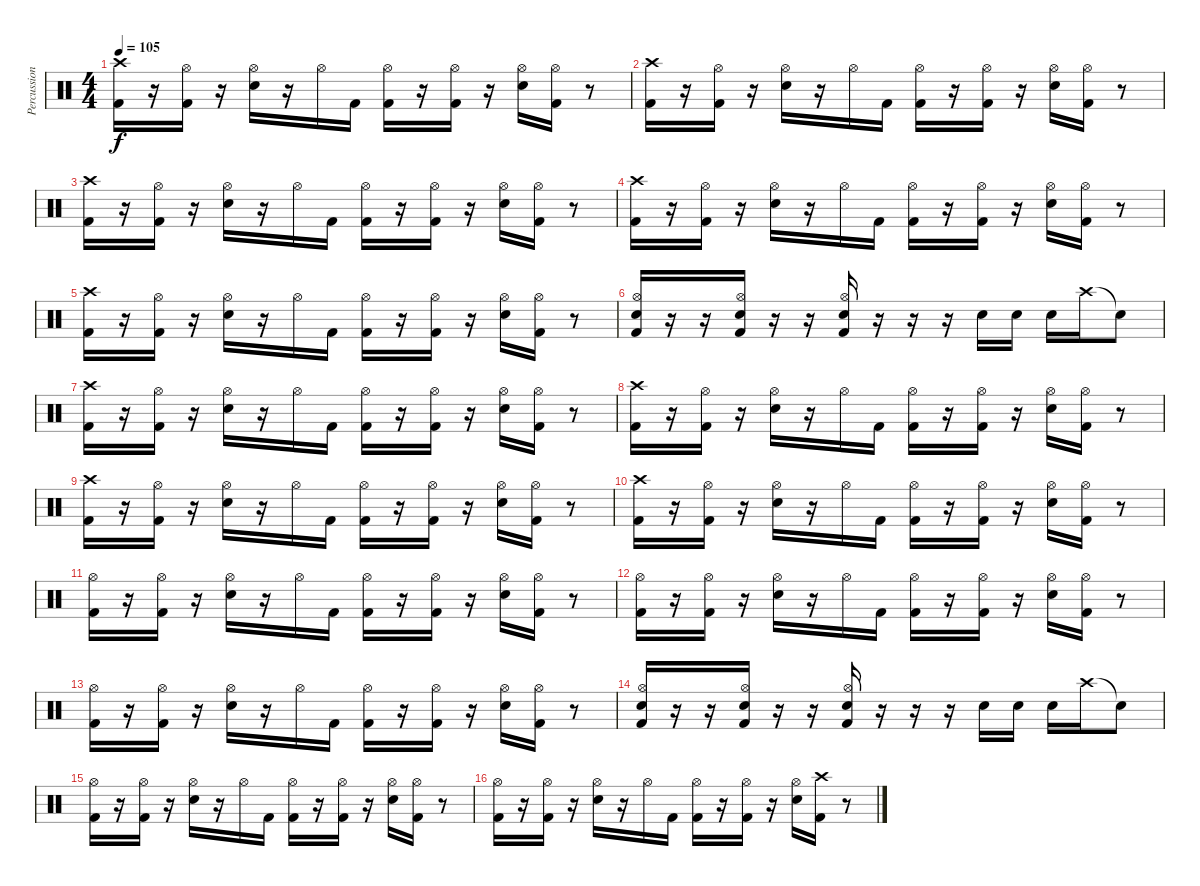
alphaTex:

\track ("Percussions" "Percussion") {instrument percussion}
\staff {score}
\articulation defaults
\ts (4 4)
\tempo 105
\clef neutral
\ks c
("Crash high (hit)" "Kick (hit) 2").16{dy f} r.16 ("Hi-Hat (open)" "Kick (hit) 2").16 r.16 ("Hi-Hat (open)" "Snare (hit) 2").16 r.16 "Hi-Hat (open)".16 "Kick (hit) 2".16 ("Kick (hit) 2" "Hi-Hat (open)").16 r.16 ("Kick (hit) 2" "Hi-Hat (open)").16 r.16 ("Hi-Hat (open)" "Snare (hit) 2").16 ("Kick (hit) 2" "Hi-Hat (open)").16 r.8 |
("Crash high (hit)" "Kick (hit) 2").16 r.16 ("Hi-Hat (open)" "Kick (hit) 2").16 r.16 ("Hi-Hat (open)" "Snare (hit) 2").16 r.16 "Hi-Hat (open)".16 "Kick (hit) 2".16 ("Kick (hit) 2" "Hi-Hat (open)").16 r.16 ("Kick (hit) 2" "Hi-Hat (open)").16 r.16 ("Hi-Hat (open)" "Snare (hit) 2").16 ("Kick (hit) 2" "Hi-Hat (open)").16 r.8 |
("Crash high (hit)" "Kick (hit) 2").16 r.16 ("Hi-Hat (open)" "Kick (hit) 2").16 r.16 ("Hi-Hat (open)" "Snare (hit) 2").16 r.16 "Hi-Hat (open)".16 "Kick (hit) 2".16 ("Kick (hit) 2" "Hi-Hat (open)").16 r.16 ("Kick (hit) 2" "Hi-Hat (open)").16 r.16 ("Hi-Hat (open)" "Snare (hit) 2").16 ("Kick (hit) 2" "Hi-Hat (open)").16 r.8 |
("Crash high (hit)" "Kick (hit) 2").16 r.16 ("Hi-Hat (open)" "Kick (hit) 2").16 r.16 ("Hi-Hat (open)" "Snare (hit) 2").16 r.16 "Hi-Hat (open)".16 "Kick (hit) 2".16 ("Kick (hit) 2" "Hi-Hat (open)").16 r.16 ("Kick (hit) 2" "Hi-Hat (open)").16 r.16 ("Hi-Hat (open)" "Snare (hit) 2").16 ("Kick (hit) 2" "Hi-Hat (open)").16 r.8 |
("Crash high (hit)" "Kick (hit) 2").16 r.16 ("Hi-Hat (open)" "Kick (hit) 2").16 r.16 ("Hi-Hat (open)" "Snare (hit) 2").16 r.16 "Hi-Hat (open)".16 "Kick (hit) 2".16 ("Kick (hit) 2" "Hi-Hat (open)").16 r.16 ("Kick (hit) 2" "Hi-Hat (open)").16 r.16 ("Hi-Hat (open)" "Snare (hit) 2").16 ("Kick (hit) 2" "Hi-Hat (open)").16 r.8 |
("Kick (hit) 2" "Snare (hit) 2" "Hi-Hat (open)").16 r.16 r.16 ("Kick (hit) 2" "Snare (hit) 2" "Hi-Hat (open)").16 r.16 r.16 ("Kick (hit) 2" "Snare (hit) 2" "Hi-Hat (open)").16 r.16 r.16 r.16 "Snare (hit) 2".16 "Snare (hit) 2".16 "Snare (hit) 2".16 "Crash high (hit)".16 "Snare (hit)"{t}.8 |
("Crash high (hit)" "Kick (hit) 2").16 r.16 ("Hi-Hat (open)" "Kick (hit) 2").16 r.16 ("Hi-Hat (open)" "Snare (hit) 2").16 r.16 "Hi-Hat (open)".16 "Kick (hit) 2".16 ("Kick (hit) 2" "Hi-Hat (open)").16 r.16 ("Kick (hit) 2" "Hi-Hat (open)").16 r.16 ("Hi-Hat (open)" "Snare (hit) 2").16 ("Kick (hit) 2" "Hi-Hat (open)").16 r.8 |
("Crash high (hit)" "Kick (hit) 2").16 r.16 ("Hi-Hat (open)" "Kick (hit) 2").16 r.16 ("Hi-Hat (open)" "Snare (hit) 2").16 r.16 "Hi-Hat (open)".16 "Kick (hit) 2".16 ("Kick (hit) 2" "Hi-Hat (open)").16 r.16 ("Kick (hit) 2" "Hi-Hat (open)").16 r.16 ("Hi-Hat (open)" "Snare (hit) 2").16 ("Kick (hit) 2" "Hi-Hat (open)").16 r.8 |
("Crash high (hit)" "Kick (hit) 2").16 r.16 ("Hi-Hat (open)" "Kick (hit) 2").16 r.16 ("Hi-Hat (open)" "Snare (hit) 2").16 r.16 "Hi-Hat (open)".16 "Kick (hit) 2".16 ("Kick (hit) 2" "Hi-Hat (open)").16 r.16 ("Kick (hit) 2" "Hi-Hat (open)").16 r.16 ("Hi-Hat (open)" "Snare (hit) 2").16 ("Kick (hit) 2" "Hi-Hat (open)").16 r.8 |
("Crash high (hit)" "Kick (hit) 2").16 r.16 ("Hi-Hat (open)" "Kick (hit) 2").16 r.16 ("Hi-Hat (open)" "Snare (hit) 2").16 r.16 "Hi-Hat (open)".16 "Kick (hit) 2".16 ("Kick (hit) 2" "Hi-Hat (open)").16 r.16 ("Kick (hit) 2" "Hi-Hat (open)").16 r.16 ("Hi-Hat (open)" "Snare (hit) 2").16 ("Kick (hit) 2" "Hi-Hat (open)").16 r.8 |
("Hi-Hat (open)" "Kick (hit) 2").16 r.16 ("Hi-Hat (open)" "Kick (hit) 2").16 r.16 ("Hi-Hat (open)" "Snare (hit) 2").16 r.16 "Hi-Hat (open)".16 "Kick (hit) 2".16 ("Kick (hit) 2" "Hi-Hat (open)").16 r.16 ("Kick (hit) 2" "Hi-Hat (open)").16 r.16 ("Hi-Hat (open)" "Snare (hit) 2").16 ("Kick (hit) 2" "Hi-Hat (open)").16 r.8 |
("Hi-Hat (open)" "Kick (hit) 2").16 r.16 ("Hi-Hat (open)" "Kick (hit) 2").16 r.16 ("Hi-Hat (open)" "Snare (hit) 2").16 r.16 "Hi-Hat (open)".16 "Kick (hit) 2".16 ("Kick (hit) 2" "Hi-Hat (open)").16 r.16 ("Kick (hit) 2" "Hi-Hat (open)").16 r.16 ("Hi-Hat (open)" "Snare (hit) 2").16 ("Kick (hit) 2" "Hi-Hat (open)").16 r.8 |
("Hi-Hat (open)" "Kick (hit) 2").16 r.16 ("Hi-Hat (open)" "Kick (hit) 2").16 r.16 ("Hi-Hat (open)" "Snare (hit) 2").16 r.16 "Hi-Hat (open)".16 "Kick (hit) 2".16 ("Kick (hit) 2" "Hi-Hat (open)").16 r.16 ("Kick (hit) 2" "Hi-Hat (open)").16 r.16 ("Hi-Hat (open)" "Snare (hit) 2").16 ("Kick (hit) 2" "Hi-Hat (open)").16 r.8 |
("Kick (hit) 2" "Snare (hit) 2" "Hi-Hat (open)").16 r.16 r.16 ("Kick (hit) 2" "Snare (hit) 2" "Hi-Hat (open)").16 r.16 r.16 ("Kick (hit) 2" "Snare (hit) 2" "Hi-Hat (open)").16 r.16 r.16 r.16 "Snare (hit) 2".16 "Snare (hit) 2".16 "Snare (hit) 2".16 "Crash high (hit)".16 "Snare (hit)"{t}.8 |
("Hi-Hat (open)" "Kick (hit) 2").16 r.16 ("Hi-Hat (open)" "Kick (hit) 2").16 r.16 ("Hi-Hat (open)" "Snare (hit) 2").16 r.16 "Hi-Hat (open)".16 "Kick (hit) 2".16 ("Kick (hit) 2" "Hi-Hat (open)").16 r.16 ("Kick (hit) 2" "Hi-Hat (open)").16 r.16 ("Hi-Hat (open)" "Snare (hit) 2").16 ("Hi-Hat (open)" "Kick (hit) 2").16 r.8 |
("Hi-Hat (open)" "Kick (hit) 2").16 r.16 ("Hi-Hat (open)" "Kick (hit) 2").16 r.16 ("Hi-Hat (open)" "Snare (hit) 2").16 r.16 "Hi-Hat (open)".16 "Kick (hit) 2".16 ("Kick (hit) 2" "Hi-Hat (open)").16 r.16 ("Kick (hit) 2" "Hi-Hat (open)").16 r.16 ("Hi-Hat (open)" "Snare (hit) 2").16 ("Kick (hit) 2" "Crash high (hit)").16 r.8
